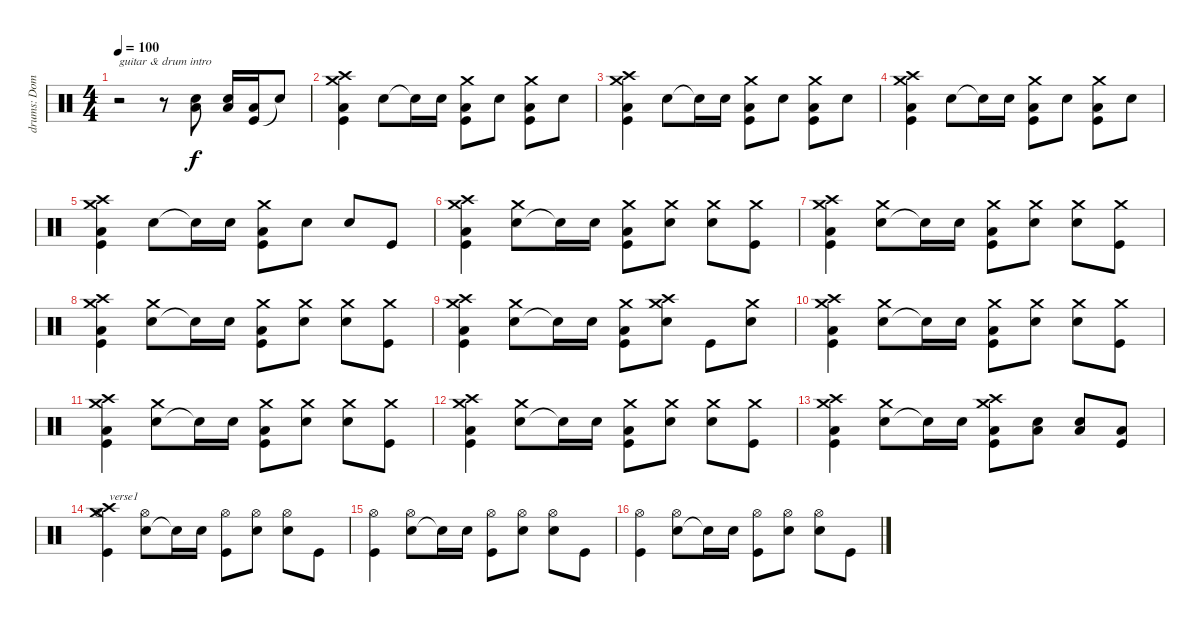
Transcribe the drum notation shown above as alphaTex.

\track ("drums: Dom" "drums: Dom") {instrument percussion}
\staff {score}
\articulation defaults
\ts (4 4)
\tempo 100
\clef neutral
\ks c
r.2{txt "guitar & drum intro" dy f} r.8 ("Snare (hit) 2" "Low Tom (hit)").8 ("Snare (hit) 2" "Low Tom (hit)").16 ("Kick (hit)" "Low Floor Tom (hit)").16 "Snare (hit)"{t}.8 |
("Kick (hit)" "Low Floor Tom (hit)" "Crash high (hit)" "Crash medium (hit)").4 "Snare (hit) 2".8 "Snare (hit)"{t}.16 "Snare (hit) 2".16 ("Kick (hit)" "Low Tom (hit)" "Crash medium (hit)").8 "Snare (hit) 2".8 ("Kick (hit)" "Low Tom (hit)" "Crash medium (hit)").8 "Snare (hit) 2".8 |
("Kick (hit)" "Low Floor Tom (hit)" "Crash high (hit)" "Crash medium (hit)").4 "Snare (hit) 2".8 "Snare (hit)"{t}.16 "Snare (hit) 2".16 ("Kick (hit)" "Low Tom (hit)" "Crash medium (hit)").8 "Snare (hit) 2".8 ("Kick (hit)" "Low Tom (hit)" "Crash medium (hit)").8 "Snare (hit) 2".8 |
("Kick (hit)" "Low Floor Tom (hit)" "Crash high (hit)" "Crash medium (hit)").4 "Snare (hit) 2".8 "Snare (hit)"{t}.16 "Snare (hit) 2".16 ("Kick (hit)" "Low Tom (hit)" "Crash medium (hit)").8 "Snare (hit) 2".8 ("Kick (hit)" "Low Tom (hit)" "Crash medium (hit)").8 "Snare (hit) 2".8 |
("Kick (hit)" "Low Floor Tom (hit)" "Crash high (hit)" "Crash medium (hit)").4 "Snare (hit) 2".8 "Snare (hit)"{t}.16 "Snare (hit) 2".16 ("Kick (hit)" "Low Tom (hit)" "Crash medium (hit)").8 "Snare (hit) 2".8 "Snare (hit) 2".8 "Kick (hit)".8 |
("Kick (hit)" "Low Floor Tom (hit)" "Crash high (hit)" "Crash medium (hit)").4 ("Snare (hit) 2" "Crash medium (hit)").8 "Snare (hit)"{t}.16 "Snare (hit) 2".16 ("Kick (hit)" "Low Tom (hit)" "Crash medium (hit)").8 ("Snare (hit) 2" "Crash medium (hit)").8 ("Snare (hit) 2" "Crash medium (hit)").8 ("Kick (hit)" "Crash medium (hit)").8 |
("Kick (hit)" "Low Floor Tom (hit)" "Crash high (hit)" "Crash medium (hit)").4 ("Snare (hit) 2" "Crash medium (hit)").8 "Snare (hit)"{t}.16 "Snare (hit) 2".16 ("Kick (hit)" "Low Tom (hit)" "Crash medium (hit)").8 ("Snare (hit) 2" "Crash medium (hit)").8 ("Snare (hit) 2" "Crash medium (hit)").8 ("Kick (hit)" "Crash medium (hit)").8 |
("Kick (hit)" "Low Floor Tom (hit)" "Crash high (hit)" "Crash medium (hit)").4 ("Snare (hit) 2" "Crash medium (hit)").8 "Snare (hit)"{t}.16 "Snare (hit) 2".16 ("Kick (hit)" "Low Tom (hit)" "Crash medium (hit)").8 ("Snare (hit) 2" "Crash medium (hit)").8 ("Snare (hit) 2" "Crash medium (hit)").8 ("Kick (hit)" "Crash medium (hit)").8 |
("Kick (hit)" "Low Floor Tom (hit)" "Crash high (hit)" "Crash medium (hit)").4 ("Snare (hit) 2" "Crash medium (hit)").8 "Snare (hit)"{t}.16 "Snare (hit) 2".16 ("Kick (hit)" "Low Tom (hit)" "Crash medium (hit)").8 ("Snare (hit) 2" "Crash high (hit)" "Crash medium (hit)").8 "Kick (hit)".8 ("Snare (hit) 2" "Crash medium (hit)").8 |
("Kick (hit)" "Low Floor Tom (hit)" "Crash high (hit)" "Crash medium (hit)").4 ("Snare (hit) 2" "Crash medium (hit)").8 "Snare (hit)"{t}.16 "Snare (hit) 2".16 ("Kick (hit)" "Low Tom (hit)" "Crash medium (hit)").8 ("Snare (hit) 2" "Crash medium (hit)").8 ("Snare (hit) 2" "Crash medium (hit)").8 ("Kick (hit)" "Crash medium (hit)").8 |
("Kick (hit)" "Low Floor Tom (hit)" "Crash high (hit)" "Crash medium (hit)").4 ("Snare (hit) 2" "Crash medium (hit)").8 "Snare (hit)"{t}.16 "Snare (hit) 2".16 ("Kick (hit)" "Low Tom (hit)" "Crash medium (hit)").8 ("Snare (hit) 2" "Crash medium (hit)").8 ("Snare (hit) 2" "Crash medium (hit)").8 ("Kick (hit)" "Crash medium (hit)").8 |
("Kick (hit)" "Low Floor Tom (hit)" "Crash high (hit)" "Crash medium (hit)").4 ("Snare (hit) 2" "Crash medium (hit)").8 "Snare (hit)"{t}.16 "Snare (hit) 2".16 ("Kick (hit)" "Low Tom (hit)" "Crash medium (hit)").8 ("Snare (hit) 2" "Crash medium (hit)").8 ("Snare (hit) 2" "Crash medium (hit)").8 ("Kick (hit)" "Crash medium (hit)").8 |
("Kick (hit)" "Low Floor Tom (hit)" "Crash high (hit)" "Crash medium (hit)").4 ("Snare (hit) 2" "Crash medium (hit)").8 "Snare (hit)"{t}.16 "Snare (hit) 2".16 ("Kick (hit)" "Low Tom (hit)" "Crash high (hit)" "Crash medium (hit)").8 ("Snare (hit) 2" "Low Floor Tom (hit)").8 ("Snare (hit) 2" "Low Floor Tom (hit)").8 ("Kick (hit)" "Low Tom (hit)").8 |
("Kick (hit)" "Hi-Hat (open)" "Crash high (hit)" "Crash medium (hit)").4{txt "verse1"} ("Snare (hit) 2" "Hi-Hat (open)").8 "Snare (hit)"{t}.16 "Snare (hit) 2".16 ("Kick (hit)" "Hi-Hat (open)").8 ("Snare (hit) 2" "Hi-Hat (open)").8 ("Snare (hit) 2" "Hi-Hat (open)").8 "Kick (hit)".8 |
("Kick (hit)" "Hi-Hat (open)").4 ("Snare (hit) 2" "Hi-Hat (open)").8 "Snare (hit)"{t}.16 "Snare (hit) 2".16 ("Kick (hit)" "Hi-Hat (open)").8 ("Snare (hit) 2" "Hi-Hat (open)").8 ("Snare (hit) 2" "Hi-Hat (open)").8 "Kick (hit)".8 |
("Kick (hit)" "Hi-Hat (open)").4 ("Snare (hit) 2" "Hi-Hat (open)").8 "Snare (hit)"{t}.16 "Snare (hit) 2".16 ("Kick (hit)" "Hi-Hat (open)").8 ("Snare (hit) 2" "Hi-Hat (open)").8 ("Snare (hit) 2" "Hi-Hat (open)").8 "Kick (hit)".8
